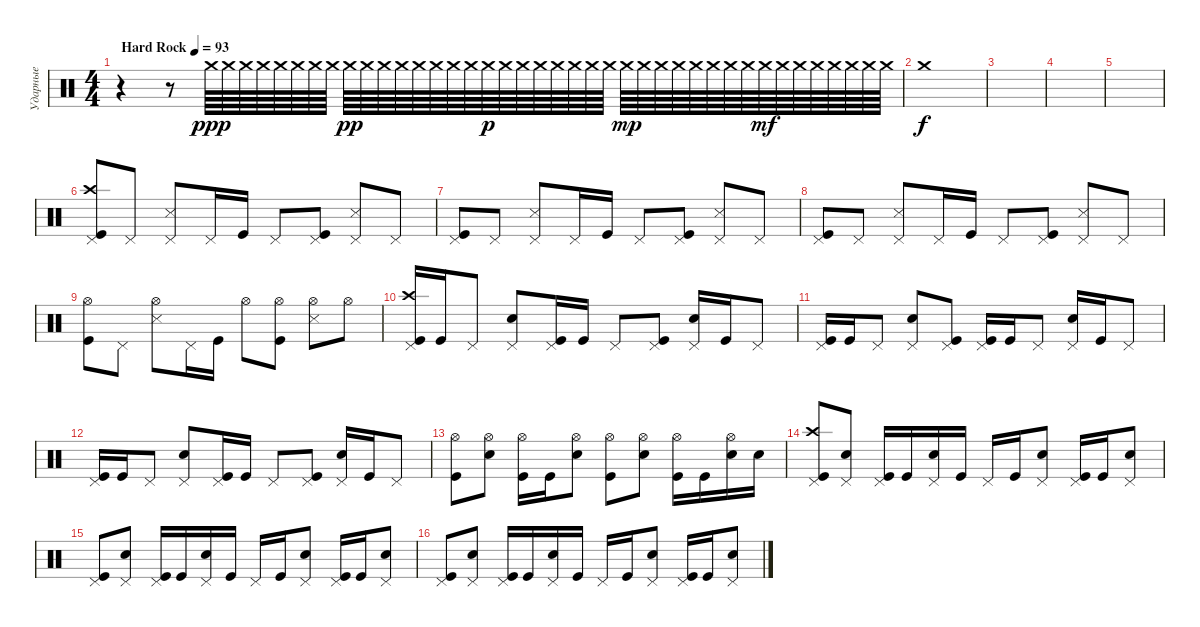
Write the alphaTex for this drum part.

\track ("Ударные" "Ударные") {instrument percussion}
\staff {score}
\articulation defaults
\ts (4 4)
\tempo (93 "Hard Rock")
\clef neutral
\ks c
r.4{dy ppp} r.8 "Crash medium (hit)".64 "Crash medium (hit)".64 "Crash medium (hit)".64 "Crash medium (hit)".64 "Crash medium (hit)".64 "Crash medium (hit)".64 "Crash medium (hit)".64 "Crash medium (hit)".64 "Crash medium (hit)".64{dy pp} "Crash medium (hit)".64 "Crash medium (hit)".64 "Crash medium (hit)".64 "Crash medium (hit)".64 "Crash medium (hit)".64 "Crash medium (hit)".64 "Crash medium (hit)".64 "Crash medium (hit)".64{dy p} "Crash medium (hit)".64 "Crash medium (hit)".64 "Crash medium (hit)".64 "Crash medium (hit)".64 "Crash medium (hit)".64 "Crash medium (hit)".64 "Crash medium (hit)".64 "Crash medium (hit)".64{dy mp} "Crash medium (hit)".64 "Crash medium (hit)".64 "Crash medium (hit)".64 "Crash medium (hit)".64 "Crash medium (hit)".64 "Crash medium (hit)".64 "Crash medium (hit)".64 "Crash medium (hit)".64{dy mf} "Crash medium (hit)".64 "Crash medium (hit)".64 "Crash medium (hit)".64 "Crash medium (hit)".64 "Crash medium (hit)".64 "Crash medium (hit)".64 "Crash medium (hit)".64 |
"Crash medium (hit)".1{dy f} |
|
|
|
("Kick (hit)" "Crash high (hit)" "Pedal Hi-Hat (hit)").8 "Pedal Hi-Hat (hit)".8 ("Pedal Hi-Hat (hit)" "Metronome (hit)").8 "Pedal Hi-Hat (hit)".16 "Kick (hit)".16 "Pedal Hi-Hat (hit)".8 ("Kick (hit)" "Pedal Hi-Hat (hit)").8 ("Pedal Hi-Hat (hit)" "Metronome (hit)").8 "Pedal Hi-Hat (hit)".8 |
("Kick (hit)" "Pedal Hi-Hat (hit)").8 "Pedal Hi-Hat (hit)".8 ("Pedal Hi-Hat (hit)" "Metronome (hit)").8 "Pedal Hi-Hat (hit)".16 "Kick (hit)".16 "Pedal Hi-Hat (hit)".8 ("Kick (hit)" "Pedal Hi-Hat (hit)").8 ("Pedal Hi-Hat (hit)" "Metronome (hit)").8 "Pedal Hi-Hat (hit)".8 |
("Kick (hit)" "Pedal Hi-Hat (hit)").8 "Pedal Hi-Hat (hit)".8 ("Pedal Hi-Hat (hit)" "Metronome (hit)").8 "Pedal Hi-Hat (hit)".16 "Kick (hit)".16 "Pedal Hi-Hat (hit)".8 ("Kick (hit)" "Pedal Hi-Hat (hit)").8 ("Pedal Hi-Hat (hit)" "Metronome (hit)").8 "Pedal Hi-Hat (hit)".8 |
("Kick (hit)" "Hi-Hat (open)").8 "Pedal Hi-Hat (hit)".8 ("Hi-Hat (open)" "Metronome (hit)").8 "Pedal Hi-Hat (hit)".16 "Kick (hit)".16 "Hi-Hat (open)".8 ("Kick (hit)" "Hi-Hat (open)").8 ("Hi-Hat (open)" "Metronome (hit)").8 "Hi-Hat (open)".8 |
("Kick (hit)" "Pedal Hi-Hat (hit)" "Crash high (hit)").16 "Kick (hit)".16 "Pedal Hi-Hat (hit)".8 ("Pedal Hi-Hat (hit)" "Snare (hit) 2").8 ("Kick (hit)" "Pedal Hi-Hat (hit)").16 "Kick (hit)".16 "Pedal Hi-Hat (hit)".8 ("Kick (hit)" "Pedal Hi-Hat (hit)").8 ("Snare (hit) 2" "Pedal Hi-Hat (hit)").16 "Kick (hit)".16 "Pedal Hi-Hat (hit)".8 |
("Kick (hit)" "Pedal Hi-Hat (hit)").16 "Kick (hit)".16 "Pedal Hi-Hat (hit)".8 ("Pedal Hi-Hat (hit)" "Snare (hit) 2").8 ("Kick (hit)" "Pedal Hi-Hat (hit)").8 ("Kick (hit)" "Pedal Hi-Hat (hit)").16 "Kick (hit)".16 "Pedal Hi-Hat (hit)".8 ("Snare (hit) 2" "Pedal Hi-Hat (hit)").16 "Kick (hit)".16 "Pedal Hi-Hat (hit)".8 |
("Kick (hit)" "Pedal Hi-Hat (hit)").16 "Kick (hit)".16 "Pedal Hi-Hat (hit)".8 ("Pedal Hi-Hat (hit)" "Snare (hit) 2").8 ("Kick (hit)" "Pedal Hi-Hat (hit)").16 "Kick (hit)".16 "Pedal Hi-Hat (hit)".8 ("Kick (hit)" "Pedal Hi-Hat (hit)").8 ("Snare (hit) 2" "Pedal Hi-Hat (hit)").16 "Kick (hit)".16 "Pedal Hi-Hat (hit)".8 |
("Kick (hit)" "Hi-Hat (open)").8 ("Hi-Hat (open)" "Snare (hit) 2").8 ("Kick (hit)" "Hi-Hat (open)").16 "Kick (hit)".16 ("Hi-Hat (open)" "Snare (hit) 2").8 ("Kick (hit)" "Hi-Hat (open)").8 ("Hi-Hat (open)" "Snare (hit) 2").8 ("Kick (hit)" "Hi-Hat (open)").16 "Kick (hit)".16 ("Hi-Hat (open)" "Snare (hit) 2").16 "Snare (hit) 2".16 |
("Kick (hit)" "Pedal Hi-Hat (hit)" "Crash high (hit)").8 ("Pedal Hi-Hat (hit)" "Snare (hit) 2").8 ("Kick (hit)" "Pedal Hi-Hat (hit)").16 "Kick (hit)".16 ("Snare (hit) 2" "Pedal Hi-Hat (hit)").16 "Kick (hit)".16 "Pedal Hi-Hat (hit)".16 "Kick (hit)".16 ("Pedal Hi-Hat (hit)" "Snare (hit) 2").8 ("Kick (hit)" "Pedal Hi-Hat (hit)").16 "Kick (hit)".16 ("Snare (hit) 2" "Pedal Hi-Hat (hit)").8 |
("Kick (hit)" "Pedal Hi-Hat (hit)").8 ("Pedal Hi-Hat (hit)" "Snare (hit) 2").8 ("Kick (hit)" "Pedal Hi-Hat (hit)").16 "Kick (hit)".16 ("Snare (hit) 2" "Pedal Hi-Hat (hit)").16 "Kick (hit)".16 "Pedal Hi-Hat (hit)".16 "Kick (hit)".16 ("Pedal Hi-Hat (hit)" "Snare (hit) 2").8 ("Kick (hit)" "Pedal Hi-Hat (hit)").16 "Kick (hit)".16 ("Snare (hit) 2" "Pedal Hi-Hat (hit)").8 |
("Kick (hit)" "Pedal Hi-Hat (hit)").8 ("Pedal Hi-Hat (hit)" "Snare (hit) 2").8 ("Kick (hit)" "Pedal Hi-Hat (hit)").16 "Kick (hit)".16 ("Snare (hit) 2" "Pedal Hi-Hat (hit)").16 "Kick (hit)".16 "Pedal Hi-Hat (hit)".16 "Kick (hit)".16 ("Pedal Hi-Hat (hit)" "Snare (hit) 2").8 ("Kick (hit)" "Pedal Hi-Hat (hit)").16 "Kick (hit)".16 ("Snare (hit) 2" "Pedal Hi-Hat (hit)").8
